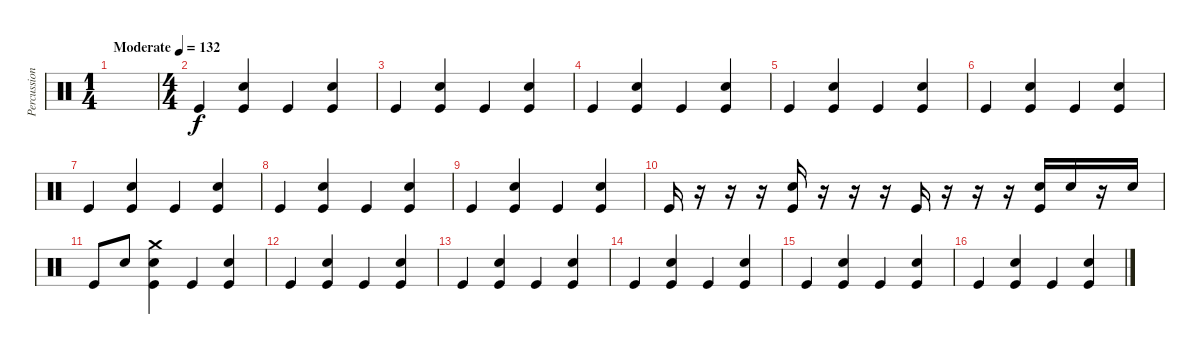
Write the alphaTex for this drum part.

\track ("Percussions" "Percussion") {instrument percussion}
\staff {score}
\articulation defaults
\ts (1 4)
\tempo (132 "Moderate")
\clef neutral
\ks c
|
\ts (4 4)
"Kick (hit)".4 ("Snare (hit) 2" "Kick (hit)").4 "Kick (hit)".4 ("Snare (hit) 2" "Kick (hit)").4 |
"Kick (hit)".4 ("Snare (hit) 2" "Kick (hit)").4 "Kick (hit)".4 ("Snare (hit) 2" "Kick (hit)").4 |
"Kick (hit)".4 ("Snare (hit) 2" "Kick (hit)").4 "Kick (hit)".4 ("Snare (hit) 2" "Kick (hit)").4 |
"Kick (hit)".4 ("Snare (hit) 2" "Kick (hit)").4 "Kick (hit)".4 ("Snare (hit) 2" "Kick (hit)").4 |
"Kick (hit)".4 ("Snare (hit) 2" "Kick (hit)").4 "Kick (hit)".4 ("Snare (hit) 2" "Kick (hit)").4 |
"Kick (hit)".4 ("Snare (hit) 2" "Kick (hit)").4 "Kick (hit)".4 ("Snare (hit) 2" "Kick (hit)").4 |
"Kick (hit)".4 ("Snare (hit) 2" "Kick (hit)").4 "Kick (hit)".4 ("Snare (hit) 2" "Kick (hit)").4 |
"Kick (hit)".4 ("Snare (hit) 2" "Kick (hit)").4 "Kick (hit)".4 ("Snare (hit) 2" "Kick (hit)").4 |
"Kick (hit)".16 r.16 r.16 r.16 ("Snare (hit) 2" "Kick (hit)").16 r.16 r.16 r.16 "Kick (hit)".16 r.16 r.16 r.16 ("Electric Snare (hit)" "Kick (hit)").16 "Electric Snare (hit)".16 r.16 "Electric Snare (hit)".16 |
"Kick (hit)".8 "Electric Snare (hit)".8 ("Crash medium (hit)" "Snare (hit) 2" "Kick (hit)").4 "Kick (hit)".4 ("Snare (hit) 2" "Kick (hit)").4 |
"Kick (hit)".4 ("Snare (hit) 2" "Kick (hit)").4 "Kick (hit)".4 ("Snare (hit) 2" "Kick (hit)").4 |
"Kick (hit)".4 ("Snare (hit) 2" "Kick (hit)").4 "Kick (hit)".4 ("Snare (hit) 2" "Kick (hit)").4 |
"Kick (hit)".4 ("Snare (hit) 2" "Kick (hit)").4 "Kick (hit)".4 ("Snare (hit) 2" "Kick (hit)").4 |
"Kick (hit)".4 ("Snare (hit) 2" "Kick (hit)").4 "Kick (hit)".4 ("Snare (hit) 2" "Kick (hit)").4 |
"Kick (hit)".4 ("Snare (hit) 2" "Kick (hit)").4 "Kick (hit)".4 ("Snare (hit) 2" "Kick (hit)").4
